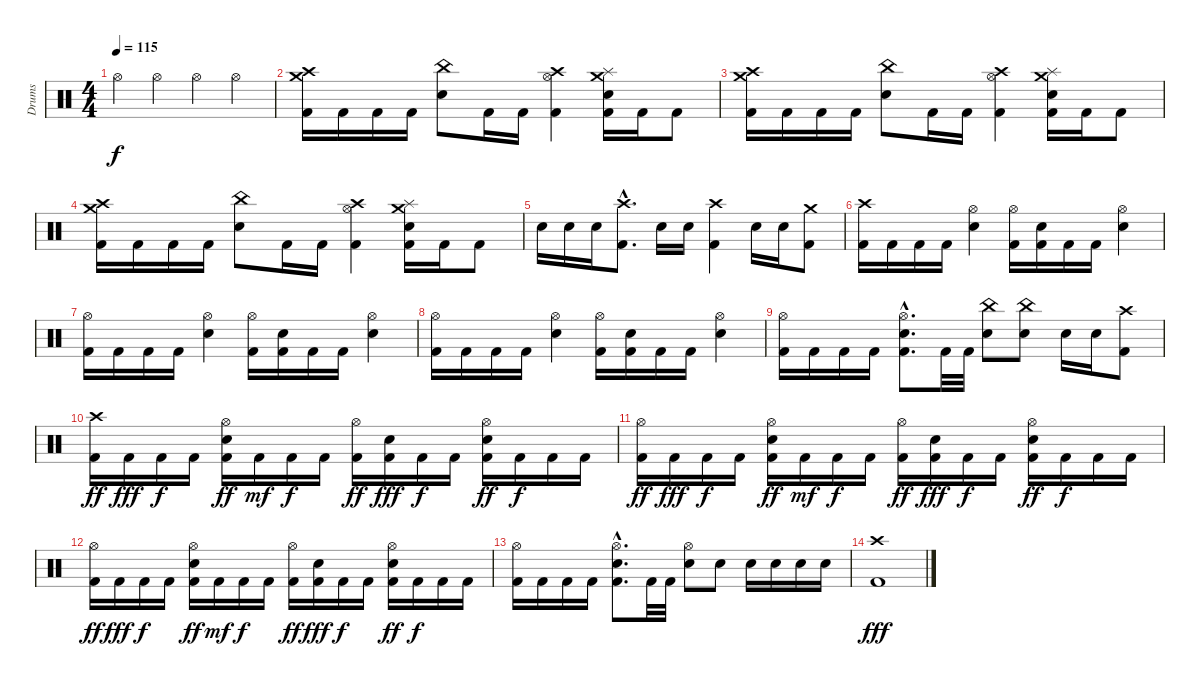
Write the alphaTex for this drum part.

\track ("Drums" "Drums") {instrument percussion}
\staff {score}
\articulation defaults
\ts (4 4)
\tempo 115
\clef neutral
\ks c "Hi-Hat (open)".4{dy f} "Hi-Hat (open)".4 "Hi-Hat (open)".4 "Hi-Hat (open)".4
|
("Crash medium (hit)" "Crash high (hit)" "Kick (hit) 2").16 "Kick (hit) 2".16 "Kick (hit) 2".16 "Kick (hit) 2".16 ("China (hit)" "Electric Snare (hit)").8 "Kick (hit) 2".16 "Kick (hit) 2".16 ("Crash high (hit)" "Hi-Hat (open)" "Kick (hit) 2").4 ("Crash medium (hit)" "Splash (hit)" "Electric Snare (hit)" "Kick (hit) 2").16 "Kick (hit) 2".16 "Kick (hit) 2".8 |
("Crash medium (hit)" "Crash high (hit)" "Kick (hit) 2").16 "Kick (hit) 2".16 "Kick (hit) 2".16 "Kick (hit) 2".16 ("China (hit)" "Electric Snare (hit)").8 "Kick (hit) 2".16 "Kick (hit) 2".16 ("Crash high (hit)" "Hi-Hat (open)" "Kick (hit) 2").4 ("Crash medium (hit)" "Splash (hit)" "Electric Snare (hit)" "Kick (hit) 2").16 "Kick (hit) 2".16 "Kick (hit) 2".8 |
("Crash medium (hit)" "Crash high (hit)" "Kick (hit) 2").16 "Kick (hit) 2".16 "Kick (hit) 2".16 "Kick (hit) 2".16 ("China (hit)" "Electric Snare (hit)").8 "Kick (hit) 2".16 "Kick (hit) 2".16 ("Crash high (hit)" "Hi-Hat (open)" "Kick (hit) 2").4 ("Crash medium (hit)" "Splash (hit)" "Electric Snare (hit)" "Kick (hit) 2").16 "Kick (hit) 2".16 "Kick (hit) 2".8 |
"Electric Snare (hit)".16 "Electric Snare (hit)".16 "Electric Snare (hit)".16 ("Crash high (hit)"{hac} "Kick (hit) 2"{hac}).8{d} "Electric Snare (hit)".16 "Electric Snare (hit)".16 ("Crash high (hit)" "Kick (hit) 2").4 "Electric Snare (hit)".16 "Electric Snare (hit)".16 ("Crash medium (hit)" "Kick (hit) 2").8 |
("Crash high (hit)" "Kick (hit) 2").16 "Kick (hit) 2".16 "Kick (hit) 2".16 "Kick (hit) 2".16 ("Hi-Hat (open)" "Electric Snare (hit)").4 ("Hi-Hat (open)" "Kick (hit) 2").16 ("Electric Snare (hit)" "Kick (hit) 2").16 "Kick (hit) 2".16 "Kick (hit) 2".16 ("Hi-Hat (open)" "Electric Snare (hit)").4 |
("Hi-Hat (open)" "Kick (hit) 2").16 "Kick (hit) 2".16 "Kick (hit) 2".16 "Kick (hit) 2".16 ("Hi-Hat (open)" "Electric Snare (hit)").4 ("Hi-Hat (open)" "Kick (hit) 2").16 ("Electric Snare (hit)" "Kick (hit) 2").16 "Kick (hit) 2".16 "Kick (hit) 2".16 ("Hi-Hat (open)" "Electric Snare (hit)").4 |
("Hi-Hat (open)" "Kick (hit) 2").16 "Kick (hit) 2".16 "Kick (hit) 2".16 "Kick (hit) 2".16 ("Hi-Hat (open)" "Electric Snare (hit)").4 ("Hi-Hat (open)" "Kick (hit) 2").16 ("Electric Snare (hit)" "Kick (hit) 2").16 "Kick (hit) 2".16 "Kick (hit) 2".16 ("Hi-Hat (open)" "Electric Snare (hit)").4 |
("Hi-Hat (open)" "Kick (hit) 2").16 "Kick (hit) 2".16 "Kick (hit) 2".16 "Kick (hit) 2".16 ("Hi-Hat (open)"{hac} "Electric Snare (hit)"{hac} "Kick (hit) 2"{hac}).8{d} "Kick (hit) 2".32 "Kick (hit) 2".32 ("China (hit)" "Electric Snare (hit)").8 ("China (hit)" "Electric Snare (hit)").8 "Electric Snare (hit)".16 "Electric Snare (hit)".16 ("Crash high (hit)" "Kick (hit) 2").8 |
("Crash high (hit)" "Kick (hit) 2").16{dy ff} "Kick (hit) 2".16{dy fff} "Kick (hit) 2".16{dy f} "Kick (hit) 2".16 ("Hi-Hat (open)" "Electric Snare (hit)" "Kick (hit) 2").16{dy ff} "Kick (hit) 2".16{dy mf} "Kick (hit) 2".16{dy f} "Kick (hit) 2".16 ("Hi-Hat (open)" "Kick (hit) 2").16{dy ff} ("Electric Snare (hit)" "Kick (hit) 2").16{dy fff} "Kick (hit) 2".16{dy f} "Kick (hit) 2".16 ("Hi-Hat (open)" "Electric Snare (hit)" "Kick (hit) 2").16{dy ff} "Kick (hit) 2".16{dy f} "Kick (hit) 2".16 "Kick (hit) 2".16 |
("Hi-Hat (open)" "Kick (hit) 2").16{dy ff} "Kick (hit) 2".16{dy fff} "Kick (hit) 2".16{dy f} "Kick (hit) 2".16 ("Hi-Hat (open)" "Electric Snare (hit)" "Kick (hit) 2").16{dy ff} "Kick (hit) 2".16{dy mf} "Kick (hit) 2".16{dy f} "Kick (hit) 2".16 ("Hi-Hat (open)" "Kick (hit) 2").16{dy ff} ("Electric Snare (hit)" "Kick (hit) 2").16{dy fff} "Kick (hit) 2".16{dy f} "Kick (hit) 2".16 ("Hi-Hat (open)" "Electric Snare (hit)" "Kick (hit) 2").16{dy ff} "Kick (hit) 2".16{dy f} "Kick (hit) 2".16 "Kick (hit) 2".16 |
("Hi-Hat (open)" "Kick (hit) 2").16{dy ff} "Kick (hit) 2".16{dy fff} "Kick (hit) 2".16{dy f} "Kick (hit) 2".16 ("Hi-Hat (open)" "Electric Snare (hit)" "Kick (hit) 2").16{dy ff} "Kick (hit) 2".16{dy mf} "Kick (hit) 2".16{dy f} "Kick (hit) 2".16 ("Hi-Hat (open)" "Kick (hit) 2").16{dy ff} ("Electric Snare (hit)" "Kick (hit) 2").16{dy fff} "Kick (hit) 2".16{dy f} "Kick (hit) 2".16 ("Hi-Hat (open)" "Electric Snare (hit)" "Kick (hit) 2").16{dy ff} "Kick (hit) 2".16{dy f} "Kick (hit) 2".16 "Kick (hit) 2".16 |
("Hi-Hat (open)" "Kick (hit) 2").16 "Kick (hit) 2".16 "Kick (hit) 2".16 "Kick (hit) 2".16 ("Hi-Hat (open)"{hac} "Electric Snare (hit)"{hac} "Kick (hit) 2"{hac}).8{d} "Kick (hit) 2".32 "Kick (hit) 2".32 ("Hi-Hat (open)" "Electric Snare (hit)").8 "Electric Snare (hit)".8 "Electric Snare (hit)".16 "Electric Snare (hit)".16 "Electric Snare (hit)".16 "Electric Snare (hit)".16 |
("Crash high (hit)" "Kick (hit) 2").1{dy fff}
